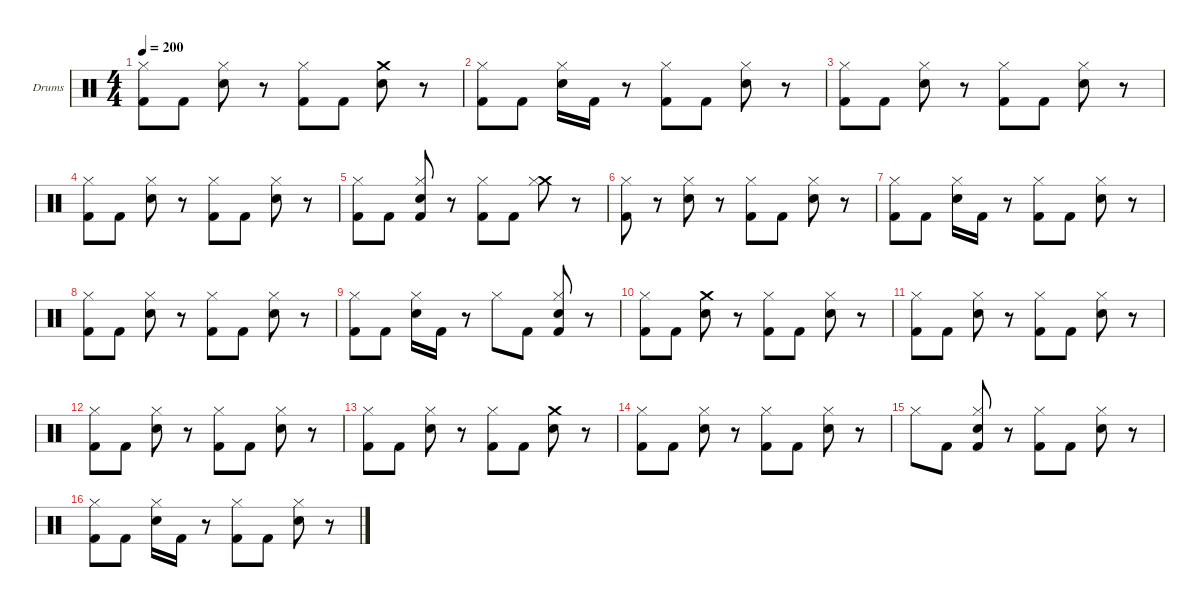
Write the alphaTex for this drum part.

\hideDynamics
\bracketExtendMode nobrackets
\firstSystemTrackNameOrientation horizontal
\otherSystemsTrackNameOrientation horizontal
\track ("Drumkit" "Drums") {instrument percussion}
\staff {score}
\articulation defaults
\ts (4 4)
\tempo 200
\clef neutral
\ks c
("Kick (hit) 2" "Hi-Hat (closed)").8{dy f} "Kick (hit) 2".8 ("Snare (hit) 2" "Hi-Hat (closed)").8 r.8 ("Kick (hit) 2" "Hi-Hat (closed)").8 "Kick (hit) 2".8 ("Snare (hit) 2" "Crash medium (hit)").8 r.8 |
("Kick (hit) 2" "Hi-Hat (closed)").8 "Kick (hit) 2".8 ("Snare (hit) 2" "Hi-Hat (closed)").16 "Kick (hit) 2".16 r.8 ("Kick (hit) 2" "Hi-Hat (closed)").8 "Kick (hit) 2".8 ("Snare (hit) 2" "Hi-Hat (closed)").8 r.8 |
("Kick (hit) 2" "Hi-Hat (closed)").8 "Kick (hit) 2".8 ("Snare (hit) 2" "Hi-Hat (closed)").8 r.8 ("Kick (hit) 2" "Hi-Hat (closed)").8 "Kick (hit) 2".8 ("Snare (hit) 2" "Hi-Hat (closed)").8 r.8 |
("Kick (hit) 2" "Hi-Hat (closed)").8 "Kick (hit) 2".8 ("Snare (hit) 2" "Hi-Hat (closed)").8 r.8 ("Kick (hit) 2" "Hi-Hat (closed)").8 "Kick (hit) 2".8 ("Snare (hit) 2" "Hi-Hat (closed)").8 r.8 |
("Kick (hit) 2" "Hi-Hat (closed)").8 "Kick (hit) 2".8 ("Snare (hit) 2" "Hi-Hat (closed)" "Kick (hit) 2").8 r.8 ("Kick (hit) 2" "Hi-Hat (closed)").8 "Kick (hit) 2".8 ("Crash medium (hit)" "Hi-Hat (closed)").8 r.8 |
("Kick (hit) 2" "Hi-Hat (closed)").8 r.8 ("Hi-Hat (closed)" "Snare (hit) 2").8 r.8 ("Kick (hit) 2" "Hi-Hat (closed)").8 "Kick (hit) 2".8 ("Snare (hit) 2" "Hi-Hat (closed)").8 r.8 |
("Kick (hit) 2" "Hi-Hat (closed)").8 "Kick (hit) 2".8 ("Snare (hit) 2" "Hi-Hat (closed)").16 "Kick (hit) 2".16 r.8 ("Kick (hit) 2" "Hi-Hat (closed)").8 "Kick (hit) 2".8 ("Snare (hit) 2" "Hi-Hat (closed)").8 r.8 |
("Kick (hit) 2" "Hi-Hat (closed)").8 "Kick (hit) 2".8 ("Snare (hit) 2" "Hi-Hat (closed)").8 r.8 ("Kick (hit) 2" "Hi-Hat (closed)").8 "Kick (hit) 2".8 ("Snare (hit) 2" "Hi-Hat (closed)").8 r.8 |
("Kick (hit) 2" "Hi-Hat (closed)").8 "Kick (hit) 2".8 ("Snare (hit) 2" "Hi-Hat (closed)").16 "Kick (hit) 2".16 r.8 "Hi-Hat (closed)".8 "Kick (hit) 2".8 ("Kick (hit) 2" "Snare (hit) 2" "Hi-Hat (closed)").8 r.8 |
("Kick (hit) 2" "Hi-Hat (closed)").8 "Kick (hit) 2".8 ("Crash medium (hit)" "Snare (hit) 2").8 r.8 ("Kick (hit) 2" "Hi-Hat (closed)").8 "Kick (hit) 2".8 ("Snare (hit) 2" "Hi-Hat (closed)").8 r.8 |
("Kick (hit) 2" "Hi-Hat (closed)").8 "Kick (hit) 2".8 ("Snare (hit) 2" "Hi-Hat (closed)").8 r.8 ("Kick (hit) 2" "Hi-Hat (closed)").8 "Kick (hit) 2".8 ("Snare (hit) 2" "Hi-Hat (closed)").8 r.8 |
("Kick (hit) 2" "Hi-Hat (closed)").8 "Kick (hit) 2".8 ("Snare (hit) 2" "Hi-Hat (closed)").8 r.8 ("Kick (hit) 2" "Hi-Hat (closed)").8 "Kick (hit) 2".8 ("Snare (hit) 2" "Hi-Hat (closed)").8 r.8 |
("Kick (hit) 2" "Hi-Hat (closed)").8 "Kick (hit) 2".8 ("Snare (hit) 2" "Hi-Hat (closed)").8 r.8 ("Kick (hit) 2" "Hi-Hat (closed)").8 "Kick (hit) 2".8 ("Crash medium (hit)" "Snare (hit) 2").8 r.8 |
("Kick (hit) 2" "Hi-Hat (closed)").8 "Kick (hit) 2".8 ("Snare (hit) 2" "Hi-Hat (closed)").8 r.8 ("Kick (hit) 2" "Hi-Hat (closed)").8 "Kick (hit) 2".8 ("Snare (hit) 2" "Hi-Hat (closed)").8 r.8 |
"Hi-Hat (closed)".8 "Kick (hit) 2".8 ("Kick (hit) 2" "Snare (hit) 2" "Hi-Hat (closed)").8 r.8 ("Kick (hit) 2" "Hi-Hat (closed)").8 "Kick (hit) 2".8 ("Hi-Hat (closed)" "Snare (hit) 2").8 r.8 |
("Kick (hit) 2" "Hi-Hat (closed)").8 "Kick (hit) 2".8 ("Snare (hit) 2" "Hi-Hat (closed)").16 "Kick (hit) 2".16 r.8 ("Hi-Hat (closed)" "Kick (hit) 2").8 "Kick (hit) 2".8 ("Hi-Hat (closed)" "Snare (hit) 2").8 r.8
